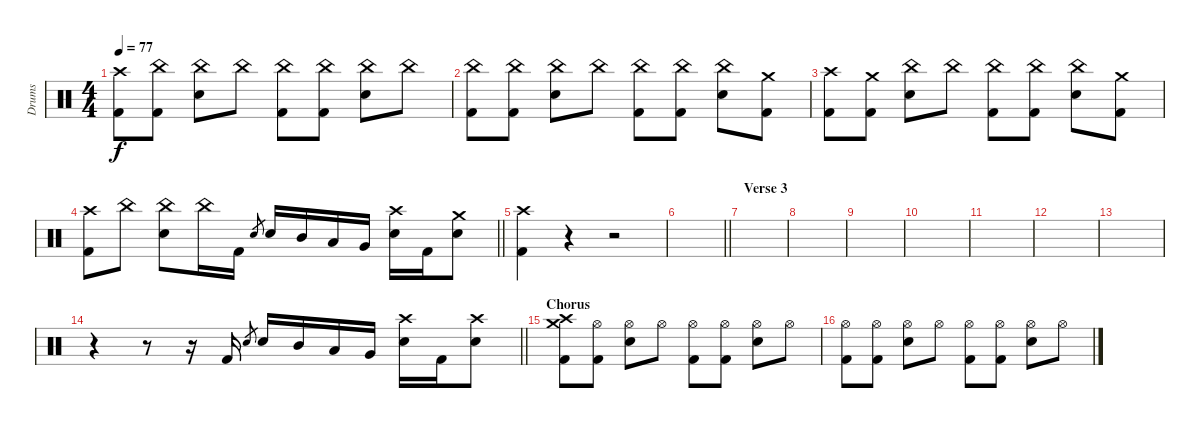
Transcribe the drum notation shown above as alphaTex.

\track ("Drums" "Drums") {instrument percussion}
\staff {score}
\articulation defaults
\ts (4 4)
\tempo 77
\clef neutral
\ks c
("Kick (hit) 2" "Crash high (hit)").8{dy f} ("Kick (hit) 2" "China (hit)").8 ("Electric Snare (hit)" "China (hit)").8 "China (hit)".8 ("Kick (hit) 2" "China (hit)").8 ("Kick (hit) 2" "China (hit)").8 ("Electric Snare (hit)" "China (hit)").8 "China (hit)".8 |
("Kick (hit) 2" "China (hit)").8 ("Kick (hit) 2" "China (hit)").8 ("Electric Snare (hit)" "China (hit)").8 "China (hit)".8 ("Kick (hit) 2" "China (hit)").8 ("Kick (hit) 2" "China (hit)").8 ("Electric Snare (hit)" "China (hit)").8 ("Kick (hit) 2" "Crash medium (hit)").8 |
("Kick (hit) 2" "Crash high (hit)").8 ("Kick (hit) 2" "Crash medium (hit)").8 ("Electric Snare (hit)" "China (hit)").8 "China (hit)".8 ("Kick (hit) 2" "China (hit)").8 ("Kick (hit) 2" "China (hit)").8 ("Electric Snare (hit)" "China (hit)").8 ("Kick (hit) 2" "Crash medium (hit)").8 |
\barLineRight lightlight
("Kick (hit) 2" "Crash high (hit)").8 "China (hit)".8 ("Electric Snare (hit)" "China (hit)").8 "China (hit)".16 "Kick (hit) 2".16 "Electric Snare (hit)".8{gr} "Electric Snare (hit)".16 "Mid Tom (hit)".16 "Low Tom (hit)".16 "Very Low Tom (hit)".16 ("Electric Snare (hit)" "Crash high (hit)").16 "Kick (hit) 2".16 ("Electric Snare (hit)" "Crash medium (hit)").8 |
("Kick (hit) 2" "Crash high (hit)").4 r.4 r.2 |
\barLineRight lightlight
|
\section ("" "Verse 3")
|
|
|
|
|
|
|
\barLineRight lightlight
r.4 r.8 r.16 "Kick (hit) 2".16 "Electric Snare (hit)".8{gr} "Electric Snare (hit)".16 "Mid Tom (hit)".16 "Low Tom (hit)".16 "Very Low Tom (hit)".16 ("Electric Snare (hit)" "Crash high (hit)").16 "Kick (hit) 2".16 ("Electric Snare (hit)" "Crash high (hit)").8 |
\section ("" "Chorus")
("Kick (hit) 2" "Crash medium (hit)" "Crash high (hit)").8 ("Kick (hit) 2" "Hi-Hat (open)").8 ("Electric Snare (hit)" "Hi-Hat (open)").8 "Hi-Hat (open)".8 ("Kick (hit) 2" "Hi-Hat (open)").8 ("Kick (hit) 2" "Hi-Hat (open)").8 ("Electric Snare (hit)" "Hi-Hat (open)").8 "Hi-Hat (open)".8 |
("Kick (hit) 2" "Hi-Hat (open)").8 ("Kick (hit) 2" "Hi-Hat (open)").8 ("Electric Snare (hit)" "Hi-Hat (open)").8 "Hi-Hat (open)".8 ("Kick (hit) 2" "Hi-Hat (open)").8 ("Kick (hit) 2" "Hi-Hat (open)").8 ("Electric Snare (hit)" "Hi-Hat (open)").8 "Hi-Hat (open)".8
